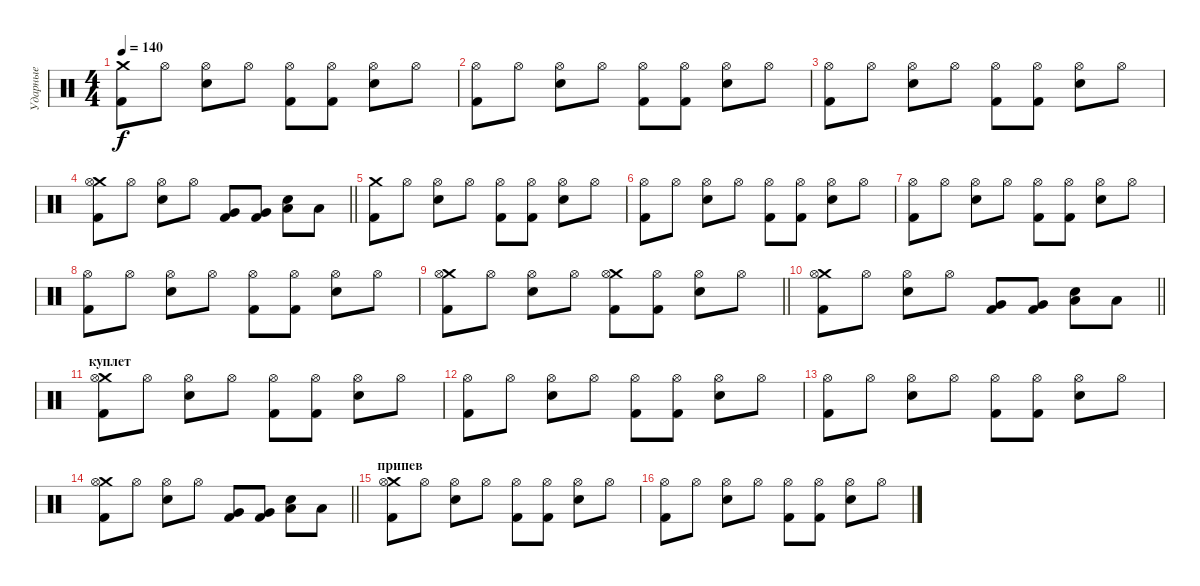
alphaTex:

\track ("Ударные" "Ударные") {instrument percussion}
\staff {score}
\articulation defaults
\ts (4 4)
\tempo 140
\clef neutral
\ks c
("Crash medium (hit)" "Kick (hit) 2").8{dy f} "Hi-Hat (open)".8 ("Hi-Hat (open)" "Electric Snare (hit)").8 "Hi-Hat (open)".8 ("Hi-Hat (open)" "Kick (hit) 2").8 ("Hi-Hat (open)" "Kick (hit) 2").8 ("Hi-Hat (open)" "Electric Snare (hit)").8 "Hi-Hat (open)".8 |
("Hi-Hat (open)" "Kick (hit) 2").8 "Hi-Hat (open)".8 ("Hi-Hat (open)" "Electric Snare (hit)").8 "Hi-Hat (open)".8 ("Hi-Hat (open)" "Kick (hit) 2").8 ("Hi-Hat (open)" "Kick (hit) 2").8 ("Hi-Hat (open)" "Electric Snare (hit)").8 "Hi-Hat (open)".8 |
("Hi-Hat (open)" "Kick (hit) 2").8 "Hi-Hat (open)".8 ("Hi-Hat (open)" "Electric Snare (hit)").8 "Hi-Hat (open)".8 ("Hi-Hat (open)" "Kick (hit) 2").8 ("Hi-Hat (open)" "Kick (hit) 2").8 ("Hi-Hat (open)" "Electric Snare (hit)").8 "Hi-Hat (open)".8 |
\barLineRight lightlight
("Crash medium (hit)" "Hi-Hat (open)" "Kick (hit) 2").8 "Hi-Hat (open)".8 ("Hi-Hat (open)" "Electric Snare (hit)").8 "Hi-Hat (open)".8 ("Very Low Tom (hit)" "Kick (hit) 2").8 ("Very Low Tom (hit)" "Kick (hit) 2").8 ("Low Floor Tom (hit)" "Electric Snare (hit)").8 "Low Floor Tom (hit)".8 |
("Crash medium (hit)" "Kick (hit) 2").8 "Hi-Hat (open)".8 ("Hi-Hat (open)" "Electric Snare (hit)").8 "Hi-Hat (open)".8 ("Hi-Hat (open)" "Kick (hit) 2").8 ("Hi-Hat (open)" "Kick (hit) 2").8 ("Hi-Hat (open)" "Electric Snare (hit)").8 "Hi-Hat (open)".8 |
("Hi-Hat (open)" "Kick (hit) 2").8 "Hi-Hat (open)".8 ("Hi-Hat (open)" "Electric Snare (hit)").8 "Hi-Hat (open)".8 ("Hi-Hat (open)" "Kick (hit) 2").8 ("Hi-Hat (open)" "Kick (hit) 2").8 ("Hi-Hat (open)" "Electric Snare (hit)").8 "Hi-Hat (open)".8 |
("Hi-Hat (open)" "Kick (hit) 2").8 "Hi-Hat (open)".8 ("Hi-Hat (open)" "Electric Snare (hit)").8 "Hi-Hat (open)".8 ("Hi-Hat (open)" "Kick (hit) 2").8 ("Hi-Hat (open)" "Kick (hit) 2").8 ("Hi-Hat (open)" "Electric Snare (hit)").8 "Hi-Hat (open)".8 |
("Hi-Hat (open)" "Kick (hit) 2").8 "Hi-Hat (open)".8 ("Hi-Hat (open)" "Electric Snare (hit)").8 "Hi-Hat (open)".8 ("Hi-Hat (open)" "Kick (hit) 2").8 ("Hi-Hat (open)" "Kick (hit) 2").8 ("Hi-Hat (open)" "Electric Snare (hit)").8 "Hi-Hat (open)".8 |
\barLineRight lightlight
("Crash medium (hit)" "Hi-Hat (open)" "Kick (hit) 2").8 "Hi-Hat (open)".8 ("Hi-Hat (open)" "Electric Snare (hit)").8 "Hi-Hat (open)".8 ("Crash medium (hit)" "Hi-Hat (open)" "Kick (hit) 2").8 ("Hi-Hat (open)" "Kick (hit) 2").8 ("Hi-Hat (open)" "Electric Snare (hit)").8 "Hi-Hat (open)".8 |
\barLineRight lightlight
("Crash medium (hit)" "Hi-Hat (open)" "Kick (hit) 2").8 "Hi-Hat (open)".8 ("Hi-Hat (open)" "Electric Snare (hit)").8 "Hi-Hat (open)".8 ("Very Low Tom (hit)" "Kick (hit) 2").8 ("Very Low Tom (hit)" "Kick (hit) 2").8 ("Low Floor Tom (hit)" "Electric Snare (hit)").8 "Low Floor Tom (hit)".8 |
\section ("" "куплет")
("Crash medium (hit)" "Hi-Hat (open)" "Kick (hit) 2").8 "Hi-Hat (open)".8 ("Hi-Hat (open)" "Electric Snare (hit)").8 "Hi-Hat (open)".8 ("Hi-Hat (open)" "Kick (hit) 2").8 ("Hi-Hat (open)" "Kick (hit) 2").8 ("Hi-Hat (open)" "Electric Snare (hit)").8 "Hi-Hat (open)".8 |
("Hi-Hat (open)" "Kick (hit) 2").8 "Hi-Hat (open)".8 ("Hi-Hat (open)" "Electric Snare (hit)").8 "Hi-Hat (open)".8 ("Hi-Hat (open)" "Kick (hit) 2").8 ("Hi-Hat (open)" "Kick (hit) 2").8 ("Hi-Hat (open)" "Electric Snare (hit)").8 "Hi-Hat (open)".8 |
("Hi-Hat (open)" "Kick (hit) 2").8 "Hi-Hat (open)".8 ("Hi-Hat (open)" "Electric Snare (hit)").8 "Hi-Hat (open)".8 ("Hi-Hat (open)" "Kick (hit) 2").8 ("Hi-Hat (open)" "Kick (hit) 2").8 ("Hi-Hat (open)" "Electric Snare (hit)").8 "Hi-Hat (open)".8 |
\barLineRight lightlight
("Crash medium (hit)" "Hi-Hat (open)" "Kick (hit) 2").8 "Hi-Hat (open)".8 ("Hi-Hat (open)" "Electric Snare (hit)").8 "Hi-Hat (open)".8 ("Very Low Tom (hit)" "Kick (hit) 2").8 ("Very Low Tom (hit)" "Kick (hit) 2").8 ("Low Floor Tom (hit)" "Electric Snare (hit)").8 "Low Floor Tom (hit)".8 |
\section ("" "припев")
("Crash medium (hit)" "Hi-Hat (open)" "Kick (hit) 2").8 "Hi-Hat (open)".8 ("Hi-Hat (open)" "Electric Snare (hit)").8 "Hi-Hat (open)".8 ("Hi-Hat (open)" "Kick (hit) 2").8 ("Hi-Hat (open)" "Kick (hit) 2").8 ("Hi-Hat (open)" "Electric Snare (hit)").8 "Hi-Hat (open)".8 |
("Hi-Hat (open)" "Kick (hit) 2").8 "Hi-Hat (open)".8 ("Hi-Hat (open)" "Electric Snare (hit)").8 "Hi-Hat (open)".8 ("Hi-Hat (open)" "Kick (hit) 2").8 ("Hi-Hat (open)" "Kick (hit) 2").8 ("Hi-Hat (open)" "Electric Snare (hit)").8 "Hi-Hat (open)".8
